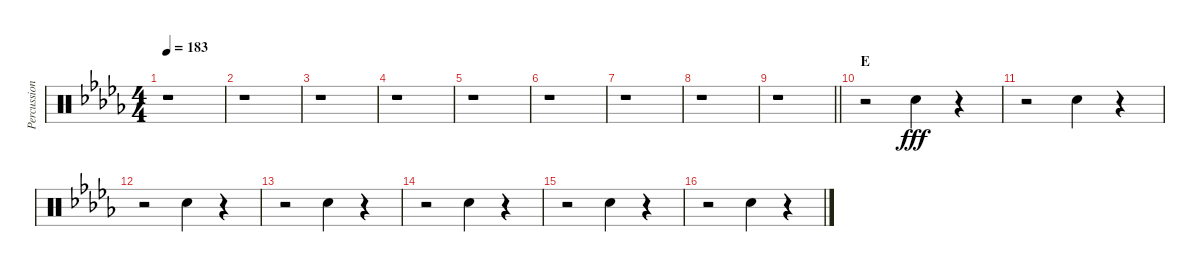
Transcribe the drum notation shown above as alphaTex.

\track ("Percussion" "Percussion") {instrument percussion}
\staff {score}
\articulation defaults
\ts (4 4)
\tempo 183
\clef neutral
\ks db
r.1{dy fff} |
r.1 |
r.1 |
r.1 |
r.1 |
r.1 |
r.1 |
r.1 |
\barLineRight lightlight
r.1 |
\section ("" "E")
r.2 "Hand Clap (hit)".4 r.4 |
r.2 "Hand Clap (hit)".4 r.4 |
r.2 "Hand Clap (hit)".4 r.4 |
r.2 "Hand Clap (hit)".4 r.4 |
r.2 "Hand Clap (hit)".4 r.4 |
r.2 "Hand Clap (hit)".4 r.4 |
r.2 "Hand Clap (hit)".4 r.4
